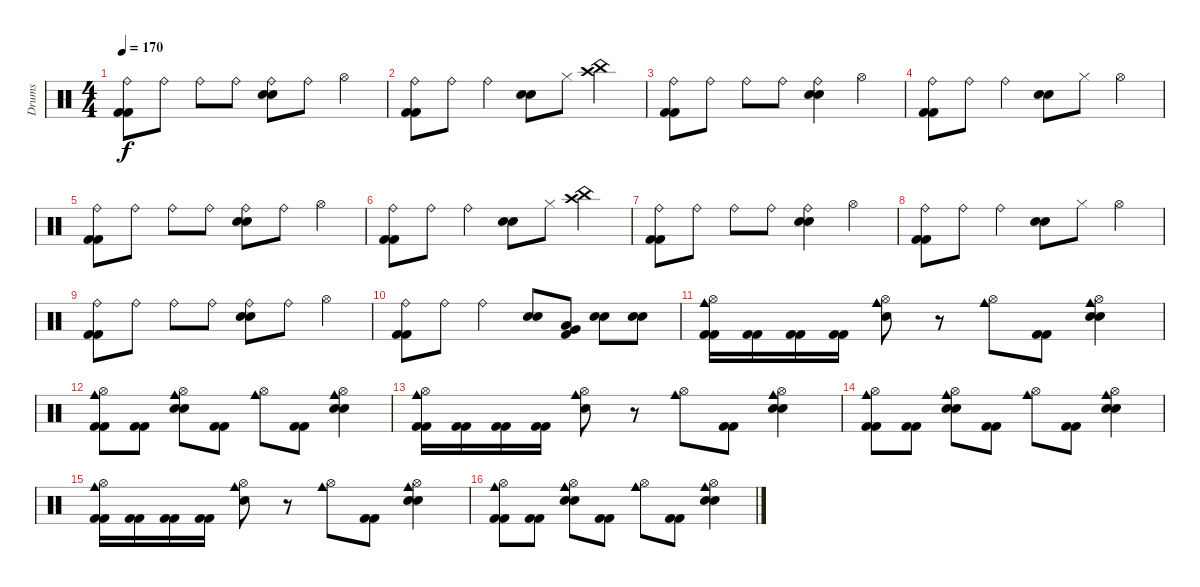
\track ("Drums" "Drums") {instrument percussion}
\staff {score}
\articulation defaults
\ts (4 4)
\tempo 170
\clef neutral
\ks c
("Ride (bell)" "Kick (hit) 2" "Kick (hit) 2").8{dy f} "Ride (bell)".8 "Ride (bell)".8 "Ride (bell)".8 ("Ride (bell)" "Electric Snare (hit)" "Electric Snare (hit)").8 "Ride (bell)".8 "Hi-Hat (open)".4 |
("Ride (bell)" "Kick (hit) 2" "Kick (hit) 2").8 "Ride (bell)".8 "Ride (bell)".4 ("Electric Snare (hit)" "Electric Snare (hit)").8 "Hi-Hat (closed)".8 ("Crash high (hit)" "China (hit)").4 |
("Ride (bell)" "Kick (hit) 2" "Kick (hit) 2").8 "Ride (bell)".8 "Ride (bell)".8 "Ride (bell)".8 ("Ride (bell)" "Electric Snare (hit)" "Electric Snare (hit)").4 "Hi-Hat (open)".4 |
("Ride (bell)" "Kick (hit) 2" "Kick (hit) 2").8 "Ride (bell)".8 "Ride (bell)".4 ("Electric Snare (hit)" "Electric Snare (hit)").8 "Hi-Hat (closed)".8 "Hi-Hat (open)".4 |
("Ride (bell)" "Kick (hit) 2" "Kick (hit) 2").8 "Ride (bell)".8 "Ride (bell)".8 "Ride (bell)".8 ("Ride (bell)" "Electric Snare (hit)" "Electric Snare (hit)").8 "Ride (bell)".8 "Hi-Hat (open)".4 |
("Ride (bell)" "Kick (hit) 2" "Kick (hit) 2").8 "Ride (bell)".8 "Ride (bell)".4 ("Electric Snare (hit)" "Electric Snare (hit)").8 "Hi-Hat (closed)".8 ("Crash high (hit)" "China (hit)").4 |
("Ride (bell)" "Kick (hit) 2" "Kick (hit) 2").8 "Ride (bell)".8 "Ride (bell)".8 "Ride (bell)".8 ("Ride (bell)" "Electric Snare (hit)" "Electric Snare (hit)").4 "Hi-Hat (open)".4 |
("Ride (bell)" "Kick (hit) 2" "Kick (hit) 2").8 "Ride (bell)".8 "Ride (bell)".4 ("Electric Snare (hit)" "Electric Snare (hit)").8 "Hi-Hat (closed)".8 "Hi-Hat (open)".4 |
("Ride (bell)" "Kick (hit) 2" "Kick (hit) 2").8 "Ride (bell)".8 "Ride (bell)".8 "Ride (bell)".8 ("Ride (bell)" "Electric Snare (hit)" "Electric Snare (hit)").8 "Ride (bell)".8 "Hi-Hat (open)".4 |
("Ride (bell)" "Kick (hit) 2" "Kick (hit) 2").8 "Ride (bell)".8 "Ride (bell)".4 ("Electric Snare (hit)" "Electric Snare (hit)").8 ("Low Floor Tom (hit)" "Very Low Tom (hit)" "Kick (hit) 2").8 ("Electric Snare (hit)" "Electric Snare (hit)").8 ("Electric Snare (hit)" "Electric Snare (hit)").8 |
("Cowbell medium (hit)" "Hi-Hat (open)" "Kick (hit) 2" "Kick (hit) 2").16 ("Kick (hit) 2" "Kick (hit) 2").16 ("Kick (hit) 2" "Kick (hit) 2").16 ("Kick (hit) 2" "Kick (hit) 2").16 ("Cowbell medium (hit)" "Hi-Hat (open)" "Electric Snare (hit)").8 r.8 ("Cowbell medium (hit)" "Hi-Hat (open)").8 ("Kick (hit) 2" "Kick (hit) 2").8 ("Cowbell medium (hit)" "Hi-Hat (open)" "Electric Snare (hit)" "Electric Snare (hit)").4 |
("Cowbell medium (hit)" "Hi-Hat (open)" "Kick (hit) 2" "Kick (hit) 2").8 ("Kick (hit) 2" "Kick (hit) 2").8 ("Cowbell medium (hit)" "Hi-Hat (open)" "Electric Snare (hit)" "Electric Snare (hit)").8 ("Kick (hit) 2" "Kick (hit) 2").8 ("Cowbell medium (hit)" "Hi-Hat (open)").8 ("Kick (hit) 2" "Kick (hit) 2").8 ("Cowbell medium (hit)" "Hi-Hat (open)" "Electric Snare (hit)" "Electric Snare (hit)").4 |
("Cowbell medium (hit)" "Hi-Hat (open)" "Kick (hit) 2" "Kick (hit) 2").16 ("Kick (hit) 2" "Kick (hit) 2").16 ("Kick (hit) 2" "Kick (hit) 2").16 ("Kick (hit) 2" "Kick (hit) 2").16 ("Cowbell medium (hit)" "Hi-Hat (open)" "Electric Snare (hit)").8 r.8 ("Cowbell medium (hit)" "Hi-Hat (open)").8 ("Kick (hit) 2" "Kick (hit) 2").8 ("Cowbell medium (hit)" "Hi-Hat (open)" "Electric Snare (hit)" "Electric Snare (hit)").4 |
("Cowbell medium (hit)" "Hi-Hat (open)" "Kick (hit) 2" "Kick (hit) 2").8 ("Kick (hit) 2" "Kick (hit) 2").8 ("Cowbell medium (hit)" "Hi-Hat (open)" "Electric Snare (hit)" "Electric Snare (hit)").8 ("Kick (hit) 2" "Kick (hit) 2").8 ("Cowbell medium (hit)" "Hi-Hat (open)").8 ("Kick (hit) 2" "Kick (hit) 2").8 ("Cowbell medium (hit)" "Hi-Hat (open)" "Electric Snare (hit)" "Electric Snare (hit)").4 |
("Cowbell medium (hit)" "Hi-Hat (open)" "Kick (hit) 2" "Kick (hit) 2").16 ("Kick (hit) 2" "Kick (hit) 2").16 ("Kick (hit) 2" "Kick (hit) 2").16 ("Kick (hit) 2" "Kick (hit) 2").16 ("Cowbell medium (hit)" "Hi-Hat (open)" "Electric Snare (hit)").8 r.8 ("Cowbell medium (hit)" "Hi-Hat (open)").8 ("Kick (hit) 2" "Kick (hit) 2").8 ("Cowbell medium (hit)" "Hi-Hat (open)" "Electric Snare (hit)" "Electric Snare (hit)").4 |
("Cowbell medium (hit)" "Hi-Hat (open)" "Kick (hit) 2" "Kick (hit) 2").8 ("Kick (hit) 2" "Kick (hit) 2").8 ("Cowbell medium (hit)" "Hi-Hat (open)" "Electric Snare (hit)" "Electric Snare (hit)").8 ("Kick (hit) 2" "Kick (hit) 2").8 ("Cowbell medium (hit)" "Hi-Hat (open)").8 ("Kick (hit) 2" "Kick (hit) 2").8 ("Cowbell medium (hit)" "Hi-Hat (open)" "Electric Snare (hit)" "Electric Snare (hit)").4
